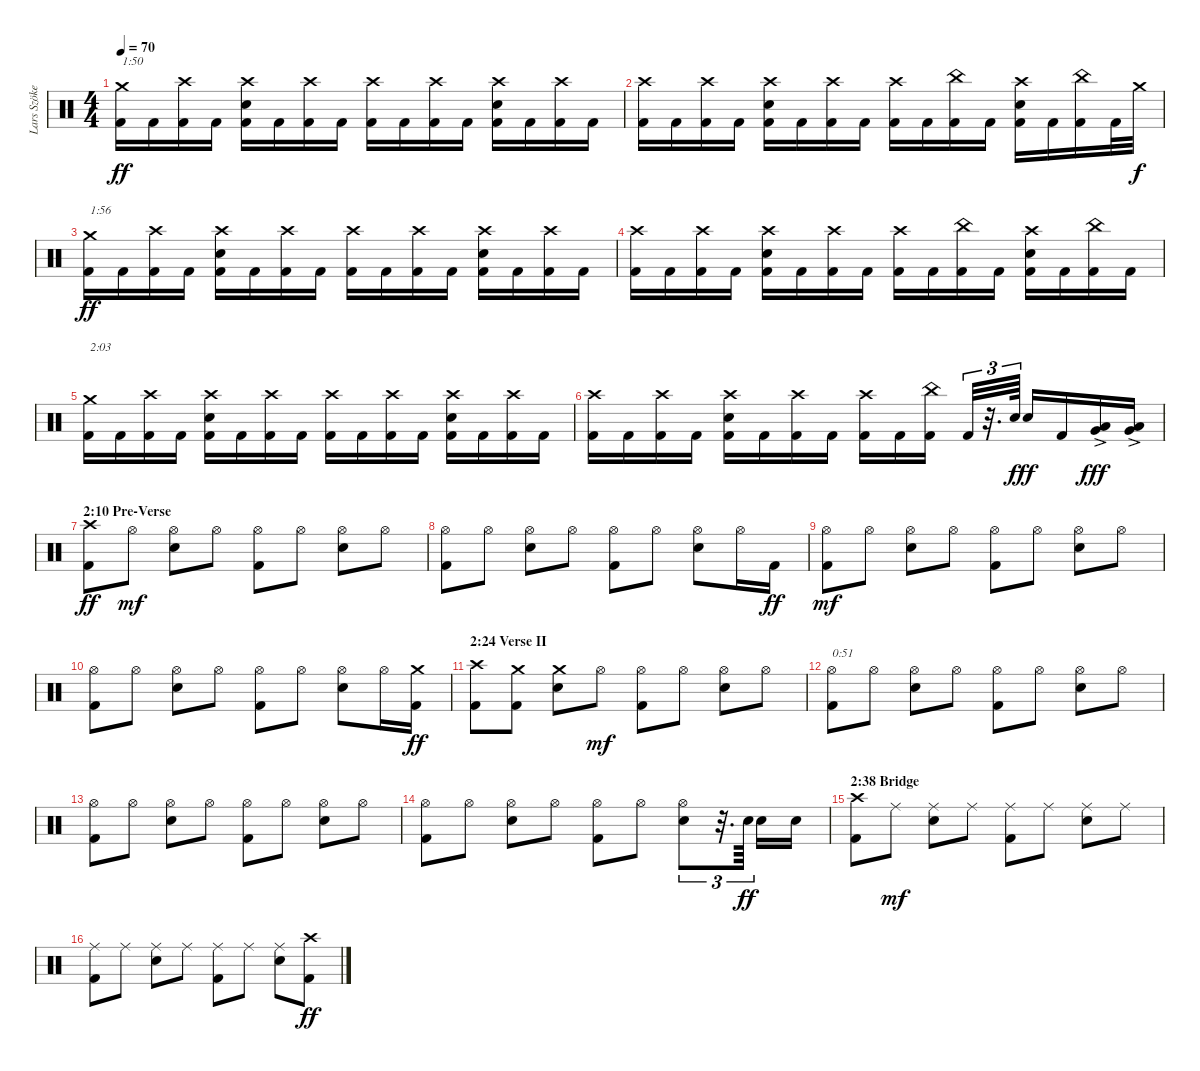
\track ("Lars Szöke (Drums)" "Lars Szöke") {instrument percussion}
\staff {score}
\articulation defaults
\ts (4 4)
\tempo 70
\clef neutral
\ks c
("Kick (hit) 2" "Crash medium (hit)").16{txt "1:50" dy ff} "Kick (hit) 2".16 ("Kick (hit) 2" "Crash high (hit)").16 "Kick (hit) 2".16 ("Kick (hit) 2" "Electric Snare (hit)" "Crash high (hit)").16 "Kick (hit) 2".16 ("Kick (hit) 2" "Crash high (hit)").16 "Kick (hit) 2".16 ("Kick (hit) 2" "Crash high (hit)").16 "Kick (hit) 2".16 ("Kick (hit) 2" "Crash high (hit)").16 "Kick (hit) 2".16 ("Kick (hit) 2" "Electric Snare (hit)" "Crash high (hit)").16 "Kick (hit) 2".16 ("Kick (hit) 2" "Crash high (hit)").16 "Kick (hit) 2".16 |
("Kick (hit) 2" "Crash high (hit)").16 "Kick (hit) 2".16 ("Kick (hit) 2" "Crash high (hit)").16 "Kick (hit) 2".16 ("Kick (hit) 2" "Electric Snare (hit)" "Crash high (hit)").16 "Kick (hit) 2".16 ("Kick (hit) 2" "Crash high (hit)").16 "Kick (hit) 2".16 ("Kick (hit) 2" "Crash high (hit)").16 "Kick (hit) 2".16 ("Kick (hit) 2" "China (hit)").16 "Kick (hit) 2".16 ("Kick (hit) 2" "Electric Snare (hit)" "Crash high (hit)").16 "Kick (hit) 2".16 ("Kick (hit) 2" "China (hit)").16 "Kick (hit) 2".32 "Crash medium (hit)".32{dy f} |
("Kick (hit) 2" "Crash medium (hit)").16{txt "1:56" dy ff} "Kick (hit) 2".16 ("Kick (hit) 2" "Crash high (hit)").16 "Kick (hit) 2".16 ("Kick (hit) 2" "Electric Snare (hit)" "Crash high (hit)").16 "Kick (hit) 2".16 ("Kick (hit) 2" "Crash high (hit)").16 "Kick (hit) 2".16 ("Kick (hit) 2" "Crash high (hit)").16 "Kick (hit) 2".16 ("Kick (hit) 2" "Crash high (hit)").16 "Kick (hit) 2".16 ("Kick (hit) 2" "Electric Snare (hit)" "Crash high (hit)").16 "Kick (hit) 2".16 ("Kick (hit) 2" "Crash high (hit)").16 "Kick (hit) 2".16 |
("Kick (hit) 2" "Crash high (hit)").16 "Kick (hit) 2".16 ("Kick (hit) 2" "Crash high (hit)").16 "Kick (hit) 2".16 ("Kick (hit) 2" "Electric Snare (hit)" "Crash high (hit)").16 "Kick (hit) 2".16 ("Kick (hit) 2" "Crash high (hit)").16 "Kick (hit) 2".16 ("Kick (hit) 2" "Crash high (hit)").16 "Kick (hit) 2".16 ("Kick (hit) 2" "China (hit)").16 "Kick (hit) 2".16 ("Kick (hit) 2" "Electric Snare (hit)" "Crash high (hit)").16 "Kick (hit) 2".16 ("Kick (hit) 2" "China (hit)").16 "Kick (hit) 2".16 |
("Kick (hit) 2" "Crash medium (hit)").16{txt "2:03"} "Kick (hit) 2".16 ("Kick (hit) 2" "Crash high (hit)").16 "Kick (hit) 2".16 ("Kick (hit) 2" "Electric Snare (hit)" "Crash high (hit)").16 "Kick (hit) 2".16 ("Kick (hit) 2" "Crash high (hit)").16 "Kick (hit) 2".16 ("Kick (hit) 2" "Crash high (hit)").16 "Kick (hit) 2".16 ("Kick (hit) 2" "Crash high (hit)").16 "Kick (hit) 2".16 ("Kick (hit) 2" "Electric Snare (hit)" "Crash high (hit)").16 "Kick (hit) 2".16 ("Kick (hit) 2" "Crash high (hit)").16 "Kick (hit) 2".16 |
("Kick (hit) 2" "Crash high (hit)").16 "Kick (hit) 2".16 ("Kick (hit) 2" "Crash high (hit)").16 "Kick (hit) 2".16 ("Kick (hit) 2" "Electric Snare (hit)" "Crash high (hit)").16 "Kick (hit) 2".16 ("Kick (hit) 2" "Crash high (hit)").16 "Kick (hit) 2".16 ("Kick (hit) 2" "Crash high (hit)").16 "Kick (hit) 2".16 ("Kick (hit) 2" "China (hit)").16 "Kick (hit) 2".32{tu (3 2)} r.32{d tu (3 2)} "Electric Snare (hit)".64{tu (3 2) dy f} "Electric Snare (hit)".16{dy ff} "Kick (hit) 2".16 ("Low Tom (hit)"{ac} "Very Low Tom (hit)"{ac}).16{dy fff} ("Very Low Tom (hit)"{ac} "Low Floor Tom (hit)"{ac}).16 |
\section ("" "2:10 Pre-Verse")
("Kick (hit) 2" "Crash high (hit)").8{dy ff} "Hi-Hat (open)".8{dy mf} ("Electric Snare (hit)" "Hi-Hat (open)").8 "Hi-Hat (open)".8 ("Kick (hit) 2" "Hi-Hat (open)").8 "Hi-Hat (open)".8 ("Electric Snare (hit)" "Hi-Hat (open)").8 "Hi-Hat (open)".8 |
("Kick (hit) 2" "Hi-Hat (open)").8 "Hi-Hat (open)".8 ("Electric Snare (hit)" "Hi-Hat (open)").8 "Hi-Hat (open)".8 ("Kick (hit) 2" "Hi-Hat (open)").8 "Hi-Hat (open)".8 ("Electric Snare (hit)" "Hi-Hat (open)").8 "Hi-Hat (open)".16 "Kick (hit) 2".16{dy ff} |
("Kick (hit) 2" "Hi-Hat (open)").8{dy mf} "Hi-Hat (open)".8 ("Electric Snare (hit)" "Hi-Hat (open)").8 "Hi-Hat (open)".8 ("Kick (hit) 2" "Hi-Hat (open)").8 "Hi-Hat (open)".8 ("Electric Snare (hit)" "Hi-Hat (open)").8 "Hi-Hat (open)".8 |
("Kick (hit) 2" "Hi-Hat (open)").8 "Hi-Hat (open)".8 ("Electric Snare (hit)" "Hi-Hat (open)").8 "Hi-Hat (open)".8 ("Kick (hit) 2" "Hi-Hat (open)").8 "Hi-Hat (open)".8 ("Electric Snare (hit)" "Hi-Hat (open)").8 "Hi-Hat (open)".16 ("Kick (hit) 2" "Crash medium (hit)").16{dy ff} |
\section ("" "2:24 Verse II")
("Kick (hit) 2" "Crash high (hit)").8 ("Kick (hit) 2" "Crash medium (hit)").8 ("Electric Snare (hit)" "Crash medium (hit)").8 "Hi-Hat (open)".8{dy mf} ("Kick (hit) 2" "Hi-Hat (open)").8 "Hi-Hat (open)".8 ("Electric Snare (hit)" "Hi-Hat (open)").8 "Hi-Hat (open)".8 |
("Kick (hit) 2" "Hi-Hat (open)").8{txt "0:51"} "Hi-Hat (open)".8 ("Electric Snare (hit)" "Hi-Hat (open)").8 "Hi-Hat (open)".8 ("Kick (hit) 2" "Hi-Hat (open)").8 "Hi-Hat (open)".8 ("Electric Snare (hit)" "Hi-Hat (open)").8 "Hi-Hat (open)".8 |
("Kick (hit) 2" "Hi-Hat (open)").8 "Hi-Hat (open)".8 ("Electric Snare (hit)" "Hi-Hat (open)").8 "Hi-Hat (open)".8 ("Kick (hit) 2" "Hi-Hat (open)").8 "Hi-Hat (open)".8 ("Electric Snare (hit)" "Hi-Hat (open)").8 "Hi-Hat (open)".8 |
("Kick (hit) 2" "Hi-Hat (open)").8 "Hi-Hat (open)".8 ("Electric Snare (hit)" "Hi-Hat (open)").8 "Hi-Hat (open)".8 ("Kick (hit) 2" "Hi-Hat (open)").8 "Hi-Hat (open)".8 ("Electric Snare (hit)" "Hi-Hat (open)").8{tu (3 2)} r.32{d tu (3 2)} "Electric Snare (hit)".64{tu (3 2) dy ff} "Electric Snare (hit)".16 "Electric Snare (hit)".16 |
\section ("" "2:38 Bridge")
("Kick (hit) 2" "Crash high (hit)").8 "Ride (middle)".8{dy mf} ("Electric Snare (hit)" "Ride (middle)").8 "Ride (middle)".8 ("Kick (hit) 2" "Ride (middle)").8 "Ride (middle)".8 ("Electric Snare (hit)" "Ride (middle)").8 "Ride (middle)".8 |
("Kick (hit) 2" "Ride (middle)").8 "Ride (middle)".8 ("Electric Snare (hit)" "Ride (middle)").8 "Ride (middle)".8 ("Kick (hit) 2" "Ride (middle)").8 "Ride (middle)".8 ("Electric Snare (hit)" "Ride (middle)").8 ("Kick (hit) 2" "Crash high (hit)").8{dy ff}
